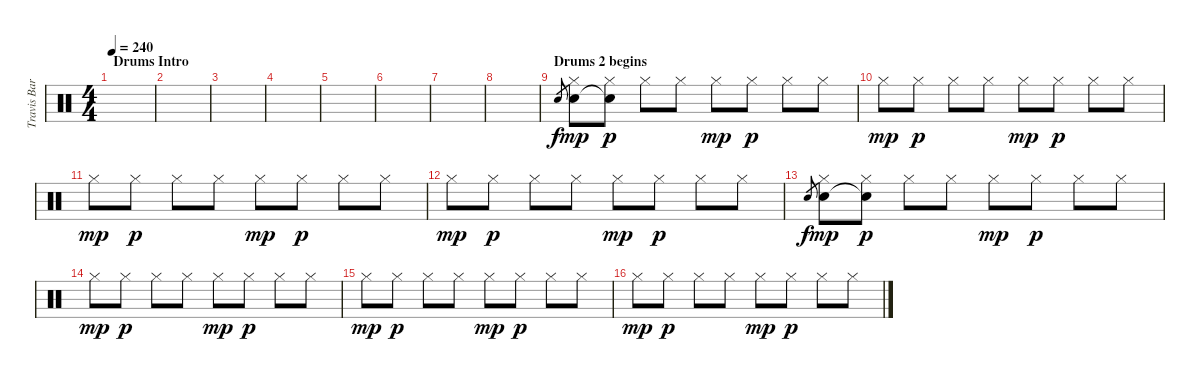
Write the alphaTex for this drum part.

\track ("Travis Barker - Drums 2" "Travis Bar") {instrument percussion}
\staff {score}
\articulation defaults
\ts (4 4)
\section ("" "Drums Intro")
\tempo 240
\clef neutral
\ks c
|
|
|
|
|
|
|
|
\section ("" "Drums 2 begins")
"Electric Snare (hit)".8{gr} ("Hi-Hat (closed)" "Electric Snare (hit)").8{dy mp} ("Hi-Hat (closed)" "Snare (hit)"{t}).8{dy p} "Hi-Hat (closed)".8 "Hi-Hat (closed)".8 "Hi-Hat (closed)".8{dy mp} "Hi-Hat (closed)".8{dy p} "Hi-Hat (closed)".8 "Hi-Hat (closed)".8 |
"Hi-Hat (closed)".8{dy mp} "Hi-Hat (closed)".8{dy p} "Hi-Hat (closed)".8 "Hi-Hat (closed)".8 "Hi-Hat (closed)".8{dy mp} "Hi-Hat (closed)".8{dy p} "Hi-Hat (closed)".8 "Hi-Hat (closed)".8 |
"Hi-Hat (closed)".8{dy mp} "Hi-Hat (closed)".8{dy p} "Hi-Hat (closed)".8 "Hi-Hat (closed)".8 "Hi-Hat (closed)".8{dy mp} "Hi-Hat (closed)".8{dy p} "Hi-Hat (closed)".8 "Hi-Hat (closed)".8 |
"Hi-Hat (closed)".8{dy mp} "Hi-Hat (closed)".8{dy p} "Hi-Hat (closed)".8 "Hi-Hat (closed)".8 "Hi-Hat (closed)".8{dy mp} "Hi-Hat (closed)".8{dy p} "Hi-Hat (closed)".8 "Hi-Hat (closed)".8 |
"Electric Snare (hit)".8{gr dy f} ("Hi-Hat (closed)" "Electric Snare (hit)").8{dy mp} ("Hi-Hat (closed)" "Snare (hit)"{t}).8{dy p} "Hi-Hat (closed)".8 "Hi-Hat (closed)".8 "Hi-Hat (closed)".8{dy mp} "Hi-Hat (closed)".8{dy p} "Hi-Hat (closed)".8 "Hi-Hat (closed)".8 |
"Hi-Hat (closed)".8{dy mp} "Hi-Hat (closed)".8{dy p} "Hi-Hat (closed)".8 "Hi-Hat (closed)".8 "Hi-Hat (closed)".8{dy mp} "Hi-Hat (closed)".8{dy p} "Hi-Hat (closed)".8 "Hi-Hat (closed)".8 |
"Hi-Hat (closed)".8{dy mp} "Hi-Hat (closed)".8{dy p} "Hi-Hat (closed)".8 "Hi-Hat (closed)".8 "Hi-Hat (closed)".8{dy mp} "Hi-Hat (closed)".8{dy p} "Hi-Hat (closed)".8 "Hi-Hat (closed)".8 |
"Hi-Hat (closed)".8{dy mp} "Hi-Hat (closed)".8{dy p} "Hi-Hat (closed)".8 "Hi-Hat (closed)".8 "Hi-Hat (closed)".8{dy mp} "Hi-Hat (closed)".8{dy p} "Hi-Hat (closed)".8 "Hi-Hat (closed)".8
